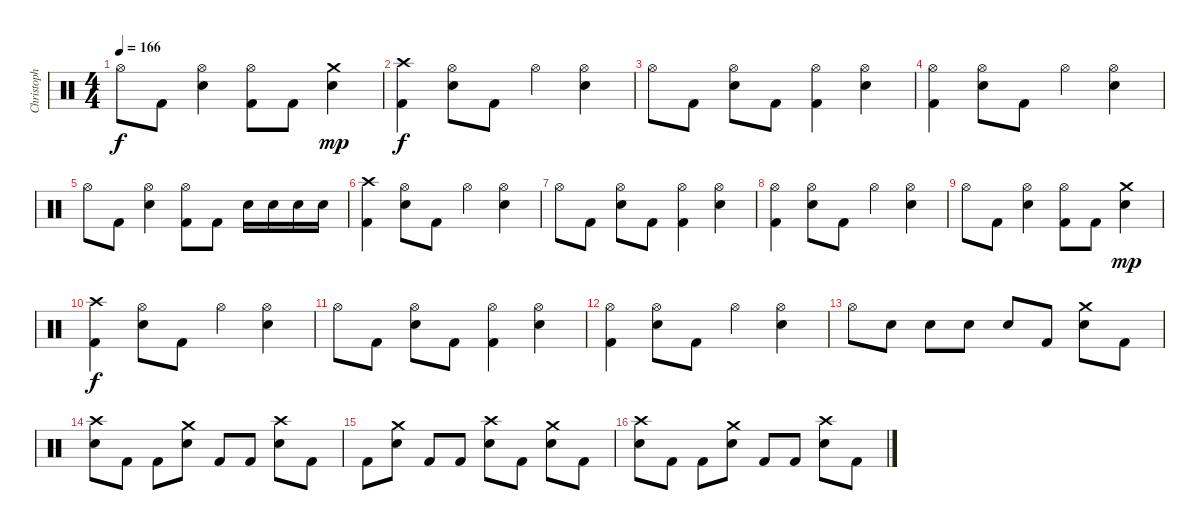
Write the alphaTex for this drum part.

\track ("Christoph" "Christoph") {instrument percussion}
\staff {score}
\articulation defaults
\ts (4 4)
\tempo 166
\clef neutral
\ks c "Hi-Hat (open)".8{dy f} "Kick (hit) 2".8
("Hi-Hat (open)" "Electric Snare (hit)").4 ("Hi-Hat (open)" "Kick (hit) 2").8 "Kick (hit) 2".8 ("Crash medium (hit)" "Electric Snare (hit)").4{dy mp} |
("Crash high (hit)" "Kick (hit) 2").4{dy f} ("Hi-Hat (open)" "Electric Snare (hit)").8 "Kick (hit) 2".8 "Hi-Hat (open)".4 ("Hi-Hat (open)" "Electric Snare (hit)").4 |
"Hi-Hat (open)".8 "Kick (hit) 2".8 ("Hi-Hat (open)" "Electric Snare (hit)").8 "Kick (hit) 2".8 ("Hi-Hat (open)" "Kick (hit) 2").4 ("Hi-Hat (open)" "Electric Snare (hit)").4 |
("Hi-Hat (open)" "Kick (hit) 2").4 ("Hi-Hat (open)" "Electric Snare (hit)").8 "Kick (hit) 2".8 "Hi-Hat (open)".4 ("Hi-Hat (open)" "Electric Snare (hit)").4 |
"Hi-Hat (open)".8 "Kick (hit) 2".8 ("Hi-Hat (open)" "Electric Snare (hit)").4 ("Hi-Hat (open)" "Kick (hit) 2").8 "Kick (hit) 2".8 "Electric Snare (hit)".16 "Electric Snare (hit)".16 "Electric Snare (hit)".16 "Electric Snare (hit)".16 |
("Crash high (hit)" "Kick (hit) 2").4 ("Hi-Hat (open)" "Electric Snare (hit)").8 "Kick (hit) 2".8 "Hi-Hat (open)".4 ("Hi-Hat (open)" "Electric Snare (hit)").4 |
"Hi-Hat (open)".8 "Kick (hit) 2".8 ("Hi-Hat (open)" "Electric Snare (hit)").8 "Kick (hit) 2".8 ("Hi-Hat (open)" "Kick (hit) 2").4 ("Hi-Hat (open)" "Electric Snare (hit)").4 |
("Hi-Hat (open)" "Kick (hit) 2").4 ("Hi-Hat (open)" "Electric Snare (hit)").8 "Kick (hit) 2".8 "Hi-Hat (open)".4 ("Hi-Hat (open)" "Electric Snare (hit)").4 |
"Hi-Hat (open)".8 "Kick (hit) 2".8 ("Hi-Hat (open)" "Electric Snare (hit)").4 ("Hi-Hat (open)" "Kick (hit) 2").8 "Kick (hit) 2".8 ("Crash medium (hit)" "Electric Snare (hit)").4{dy mp} |
("Crash high (hit)" "Kick (hit) 2").4{dy f} ("Hi-Hat (open)" "Electric Snare (hit)").8 "Kick (hit) 2".8 "Hi-Hat (open)".4 ("Hi-Hat (open)" "Electric Snare (hit)").4 |
"Hi-Hat (open)".8 "Kick (hit) 2".8 ("Hi-Hat (open)" "Electric Snare (hit)").8 "Kick (hit) 2".8 ("Hi-Hat (open)" "Kick (hit) 2").4 ("Hi-Hat (open)" "Electric Snare (hit)").4 |
("Hi-Hat (open)" "Kick (hit) 2").4 ("Hi-Hat (open)" "Electric Snare (hit)").8 "Kick (hit) 2".8 "Hi-Hat (open)".4 ("Hi-Hat (open)" "Electric Snare (hit)").4 |
"Hi-Hat (open)".8 "Electric Snare (hit)".8 "Electric Snare (hit)".8 "Electric Snare (hit)".8 "Electric Snare (hit)".8 "Kick (hit) 2".8 ("Crash medium (hit)" "Electric Snare (hit)").8 "Kick (hit) 2".8 |
("Crash high (hit)" "Electric Snare (hit)").8 "Kick (hit) 2".8 "Kick (hit) 2".8 ("Crash medium (hit)" "Electric Snare (hit)").8 "Kick (hit) 2".8 "Kick (hit) 2".8 ("Crash high (hit)" "Electric Snare (hit)").8 "Kick (hit) 2".8 |
"Kick (hit) 2".8 ("Crash medium (hit)" "Electric Snare (hit)").8 "Kick (hit) 2".8 "Kick (hit) 2".8 ("Crash high (hit)" "Electric Snare (hit)").8 "Kick (hit) 2".8 ("Crash medium (hit)" "Electric Snare (hit)").8 "Kick (hit) 2".8 |
("Crash high (hit)" "Electric Snare (hit)").8 "Kick (hit) 2".8 "Kick (hit) 2".8 ("Crash medium (hit)" "Electric Snare (hit)").8 "Kick (hit) 2".8 "Kick (hit) 2".8 ("Crash high (hit)" "Electric Snare (hit)").8 "Kick (hit) 2".8
